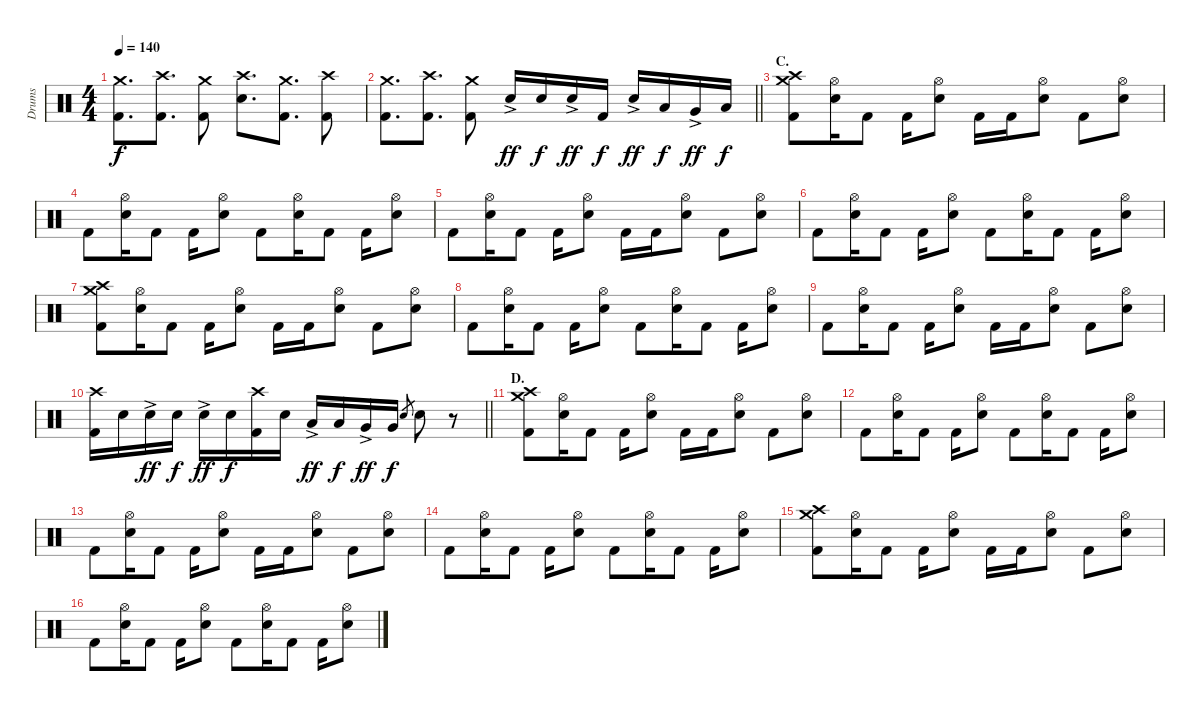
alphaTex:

\track ("Drums" "Drums") {instrument percussion}
\staff {score}
\articulation defaults
\ts (4 4)
\tempo 140
\clef neutral
\ks c
("Crash medium (hit)" "Kick (hit) 2").8{d dy f} ("Crash high (hit)" "Kick (hit) 2").8{d} ("Crash medium (hit)" "Kick (hit) 2").8 ("Crash high (hit)" "Electric Snare (hit)").8{d} ("Crash medium (hit)" "Kick (hit) 2").8{d} ("Crash high (hit)" "Kick (hit) 2").8 |
\barLineRight lightlight
("Crash medium (hit)" "Kick (hit) 2").8{d} ("Crash high (hit)" "Kick (hit) 2").8{d} ("Crash medium (hit)" "Kick (hit) 2").8 "Electric Snare (hit)"{ac}.16{dy ff} "Electric Snare (hit)".16{dy f} "Electric Snare (hit)"{ac}.16{dy ff} "Kick (hit) 2".16{dy f} "Electric Snare (hit)"{ac}.16{dy ff} "Low Tom (hit)".16{dy f} "Very Low Tom (hit)"{ac}.16{dy ff} "Low Floor Tom (hit)".16{dy f} |
\section ("" "C.")
("Crash medium (hit)" "Crash high (hit)" "Kick (hit) 2").8 ("Hi-Hat (open)" "Electric Snare (hit)").16 "Kick (hit) 2".8 "Kick (hit) 2".16 ("Hi-Hat (open)" "Electric Snare (hit)").8 "Kick (hit) 2".16 "Kick (hit) 2".16 ("Hi-Hat (open)" "Electric Snare (hit)").8 "Kick (hit) 2".8 ("Hi-Hat (open)" "Electric Snare (hit)").8 |
"Kick (hit) 2".8 ("Hi-Hat (open)" "Electric Snare (hit)").16 "Kick (hit) 2".8 "Kick (hit) 2".16 ("Hi-Hat (open)" "Electric Snare (hit)").8 "Kick (hit) 2".8 ("Hi-Hat (open)" "Electric Snare (hit)").16 "Kick (hit) 2".8 "Kick (hit) 2".16 ("Hi-Hat (open)" "Electric Snare (hit)").8 |
"Kick (hit) 2".8 ("Hi-Hat (open)" "Electric Snare (hit)").16 "Kick (hit) 2".8 "Kick (hit) 2".16 ("Hi-Hat (open)" "Electric Snare (hit)").8 "Kick (hit) 2".16 "Kick (hit) 2".16 ("Hi-Hat (open)" "Electric Snare (hit)").8 "Kick (hit) 2".8 ("Hi-Hat (open)" "Electric Snare (hit)").8 |
"Kick (hit) 2".8 ("Hi-Hat (open)" "Electric Snare (hit)").16 "Kick (hit) 2".8 "Kick (hit) 2".16 ("Hi-Hat (open)" "Electric Snare (hit)").8 "Kick (hit) 2".8 ("Hi-Hat (open)" "Electric Snare (hit)").16 "Kick (hit) 2".8 "Kick (hit) 2".16 ("Hi-Hat (open)" "Electric Snare (hit)").8 |
("Crash medium (hit)" "Crash high (hit)" "Kick (hit) 2").8 ("Hi-Hat (open)" "Electric Snare (hit)").16 "Kick (hit) 2".8 "Kick (hit) 2".16 ("Hi-Hat (open)" "Electric Snare (hit)").8 "Kick (hit) 2".16 "Kick (hit) 2".16 ("Hi-Hat (open)" "Electric Snare (hit)").8 "Kick (hit) 2".8 ("Hi-Hat (open)" "Electric Snare (hit)").8 |
"Kick (hit) 2".8 ("Hi-Hat (open)" "Electric Snare (hit)").16 "Kick (hit) 2".8 "Kick (hit) 2".16 ("Hi-Hat (open)" "Electric Snare (hit)").8 "Kick (hit) 2".8 ("Hi-Hat (open)" "Electric Snare (hit)").16 "Kick (hit) 2".8 "Kick (hit) 2".16 ("Hi-Hat (open)" "Electric Snare (hit)").8 |
"Kick (hit) 2".8 ("Hi-Hat (open)" "Electric Snare (hit)").16 "Kick (hit) 2".8 "Kick (hit) 2".16 ("Hi-Hat (open)" "Electric Snare (hit)").8 "Kick (hit) 2".16 "Kick (hit) 2".16 ("Hi-Hat (open)" "Electric Snare (hit)").8 "Kick (hit) 2".8 ("Hi-Hat (open)" "Electric Snare (hit)").8 |
\barLineRight lightlight
("Crash high (hit)" "Kick (hit) 2").16 "Electric Snare (hit)".16 "Electric Snare (hit)"{ac}.16{dy ff} "Electric Snare (hit)".16{dy f} "Electric Snare (hit)"{ac}.16{dy ff} "Electric Snare (hit)".16{dy f} ("Crash high (hit)" "Kick (hit) 2").16 "Electric Snare (hit)".16 "Low Tom (hit)"{ac}.16{dy ff} "Low Tom (hit)".16{dy f} "Very Low Tom (hit)"{ac}.16{dy ff} "Very Low Tom (hit)".16{dy f} "Electric Snare (hit)".8{gr} "Electric Snare (hit)".8 r.8 |
\section ("" "D.")
("Crash medium (hit)" "Crash high (hit)" "Kick (hit) 2").8 ("Hi-Hat (open)" "Electric Snare (hit)").16 "Kick (hit) 2".8 "Kick (hit) 2".16 ("Hi-Hat (open)" "Electric Snare (hit)").8 "Kick (hit) 2".16 "Kick (hit) 2".16 ("Hi-Hat (open)" "Electric Snare (hit)").8 "Kick (hit) 2".8 ("Hi-Hat (open)" "Electric Snare (hit)").8 |
"Kick (hit) 2".8 ("Hi-Hat (open)" "Electric Snare (hit)").16 "Kick (hit) 2".8 "Kick (hit) 2".16 ("Hi-Hat (open)" "Electric Snare (hit)").8 "Kick (hit) 2".8 ("Hi-Hat (open)" "Electric Snare (hit)").16 "Kick (hit) 2".8 "Kick (hit) 2".16 ("Hi-Hat (open)" "Electric Snare (hit)").8 |
"Kick (hit) 2".8 ("Hi-Hat (open)" "Electric Snare (hit)").16 "Kick (hit) 2".8 "Kick (hit) 2".16 ("Hi-Hat (open)" "Electric Snare (hit)").8 "Kick (hit) 2".16 "Kick (hit) 2".16 ("Hi-Hat (open)" "Electric Snare (hit)").8 "Kick (hit) 2".8 ("Hi-Hat (open)" "Electric Snare (hit)").8 |
"Kick (hit) 2".8 ("Hi-Hat (open)" "Electric Snare (hit)").16 "Kick (hit) 2".8 "Kick (hit) 2".16 ("Hi-Hat (open)" "Electric Snare (hit)").8 "Kick (hit) 2".8 ("Hi-Hat (open)" "Electric Snare (hit)").16 "Kick (hit) 2".8 "Kick (hit) 2".16 ("Hi-Hat (open)" "Electric Snare (hit)").8 |
("Crash medium (hit)" "Crash high (hit)" "Kick (hit) 2").8 ("Hi-Hat (open)" "Electric Snare (hit)").16 "Kick (hit) 2".8 "Kick (hit) 2".16 ("Hi-Hat (open)" "Electric Snare (hit)").8 "Kick (hit) 2".16 "Kick (hit) 2".16 ("Hi-Hat (open)" "Electric Snare (hit)").8 "Kick (hit) 2".8 ("Hi-Hat (open)" "Electric Snare (hit)").8 |
"Kick (hit) 2".8 ("Hi-Hat (open)" "Electric Snare (hit)").16 "Kick (hit) 2".8 "Kick (hit) 2".16 ("Hi-Hat (open)" "Electric Snare (hit)").8 "Kick (hit) 2".8 ("Hi-Hat (open)" "Electric Snare (hit)").16 "Kick (hit) 2".8 "Kick (hit) 2".16 ("Hi-Hat (open)" "Electric Snare (hit)").8
